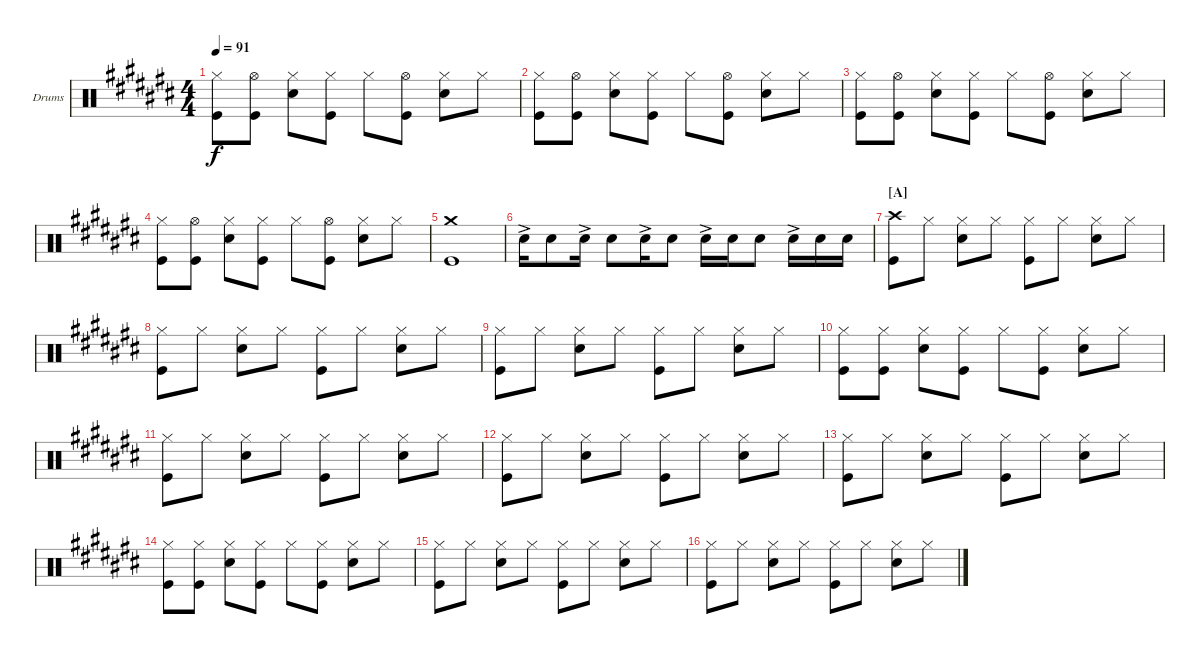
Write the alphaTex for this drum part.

\bracketExtendMode groupsimilarinstruments
\firstSystemTrackNameOrientation horizontal
\otherSystemsTrackNameOrientation horizontal
\track ("Fabrizio Moretti" "Drums") {instrument percussion}
\staff {score}
\articulation defaults
\ts (4 4)
\tempo 91
\clef neutral
\ks c#
("Hi-Hat (closed)" "Kick (hit)").8{dy f} ("Hi-Hat (open)" "Kick (hit)").8 ("Snare (hit) 2" "Hi-Hat (closed)").8 ("Hi-Hat (closed)" "Kick (hit)").8 "Hi-Hat (closed)".8 ("Hi-Hat (open)" "Kick (hit)").8 ("Snare (hit) 2" "Hi-Hat (closed)").8 "Hi-Hat (closed)".8 |
("Hi-Hat (closed)" "Kick (hit)").8 ("Hi-Hat (open)" "Kick (hit)").8 ("Snare (hit) 2" "Hi-Hat (closed)").8 ("Hi-Hat (closed)" "Kick (hit)").8 "Hi-Hat (closed)".8 ("Hi-Hat (open)" "Kick (hit)").8 ("Snare (hit) 2" "Hi-Hat (closed)").8 "Hi-Hat (closed)".8 |
("Hi-Hat (closed)" "Kick (hit)").8 ("Hi-Hat (open)" "Kick (hit)").8 ("Snare (hit) 2" "Hi-Hat (closed)").8 ("Hi-Hat (closed)" "Kick (hit)").8 "Hi-Hat (closed)".8 ("Hi-Hat (open)" "Kick (hit)").8 ("Snare (hit) 2" "Hi-Hat (closed)").8 "Hi-Hat (closed)".8 |
("Hi-Hat (closed)" "Kick (hit)").8 ("Hi-Hat (open)" "Kick (hit)").8 ("Snare (hit) 2" "Hi-Hat (closed)").8 ("Hi-Hat (closed)" "Kick (hit)").8 "Hi-Hat (closed)".8 ("Hi-Hat (open)" "Kick (hit)").8 ("Snare (hit) 2" "Hi-Hat (closed)").8 "Hi-Hat (closed)".8 |
("Crash medium (hit)" "Kick (hit)").1 |
"Snare (hit) 2"{ac}.16 "Snare (hit) 2".8 "Snare (hit) 2"{ac}.16 "Snare (hit) 2".8 "Snare (hit) 2"{ac}.16 "Snare (hit) 2".8 "Snare (hit) 2"{ac}.16 "Snare (hit) 2".16 "Snare (hit) 2".8 "Snare (hit) 2"{ac}.16 "Snare (hit) 2".16 "Snare (hit) 2".16 |
\section ("A" "")
("Crash high (hit)" "Kick (hit)").8 "Hi-Hat (closed)".8 ("Hi-Hat (closed)" "Snare (hit) 2").8 "Hi-Hat (closed)".8 ("Hi-Hat (closed)" "Kick (hit)").8 "Hi-Hat (closed)".8 ("Hi-Hat (closed)" "Snare (hit) 2").8 "Hi-Hat (closed)".8 |
("Hi-Hat (closed)" "Kick (hit)").8 "Hi-Hat (closed)".8 ("Hi-Hat (closed)" "Snare (hit) 2").8 "Hi-Hat (closed)".8 ("Hi-Hat (closed)" "Kick (hit)").8 "Hi-Hat (closed)".8 ("Hi-Hat (closed)" "Snare (hit) 2").8 "Hi-Hat (closed)".8 |
("Hi-Hat (closed)" "Kick (hit)").8 "Hi-Hat (closed)".8 ("Hi-Hat (closed)" "Snare (hit) 2").8 "Hi-Hat (closed)".8 ("Hi-Hat (closed)" "Kick (hit)").8 "Hi-Hat (closed)".8 ("Hi-Hat (closed)" "Snare (hit) 2").8 "Hi-Hat (closed)".8 |
("Hi-Hat (closed)" "Kick (hit)").8 ("Hi-Hat (closed)" "Kick (hit)").8 ("Hi-Hat (closed)" "Snare (hit) 2").8 ("Hi-Hat (closed)" "Kick (hit)").8 "Hi-Hat (closed)".8 ("Hi-Hat (closed)" "Kick (hit)").8 ("Hi-Hat (closed)" "Snare (hit) 2").8 "Hi-Hat (closed)".8 |
("Hi-Hat (closed)" "Kick (hit)").8 "Hi-Hat (closed)".8 ("Hi-Hat (closed)" "Snare (hit) 2").8 "Hi-Hat (closed)".8 ("Hi-Hat (closed)" "Kick (hit)").8 "Hi-Hat (closed)".8 ("Hi-Hat (closed)" "Snare (hit) 2").8 "Hi-Hat (closed)".8 |
("Hi-Hat (closed)" "Kick (hit)").8 "Hi-Hat (closed)".8 ("Hi-Hat (closed)" "Snare (hit) 2").8 "Hi-Hat (closed)".8 ("Hi-Hat (closed)" "Kick (hit)").8 "Hi-Hat (closed)".8 ("Hi-Hat (closed)" "Snare (hit) 2").8 "Hi-Hat (closed)".8 |
("Hi-Hat (closed)" "Kick (hit)").8 "Hi-Hat (closed)".8 ("Hi-Hat (closed)" "Snare (hit) 2").8 "Hi-Hat (closed)".8 ("Hi-Hat (closed)" "Kick (hit)").8 "Hi-Hat (closed)".8 ("Hi-Hat (closed)" "Snare (hit) 2").8 "Hi-Hat (closed)".8 |
("Hi-Hat (closed)" "Kick (hit)").8 ("Hi-Hat (closed)" "Kick (hit)").8 ("Hi-Hat (closed)" "Snare (hit) 2").8 ("Hi-Hat (closed)" "Kick (hit)").8 "Hi-Hat (closed)".8 ("Hi-Hat (closed)" "Kick (hit)").8 ("Hi-Hat (closed)" "Snare (hit) 2").8 "Hi-Hat (closed)".8 |
("Hi-Hat (closed)" "Kick (hit)").8 "Hi-Hat (closed)".8 ("Hi-Hat (closed)" "Snare (hit) 2").8 "Hi-Hat (closed)".8 ("Hi-Hat (closed)" "Kick (hit)").8 "Hi-Hat (closed)".8 ("Hi-Hat (closed)" "Snare (hit) 2").8 "Hi-Hat (closed)".8 |
("Hi-Hat (closed)" "Kick (hit)").8 "Hi-Hat (closed)".8 ("Hi-Hat (closed)" "Snare (hit) 2").8 "Hi-Hat (closed)".8 ("Hi-Hat (closed)" "Kick (hit)").8 "Hi-Hat (closed)".8 ("Hi-Hat (closed)" "Snare (hit) 2").8 "Hi-Hat (closed)".8
